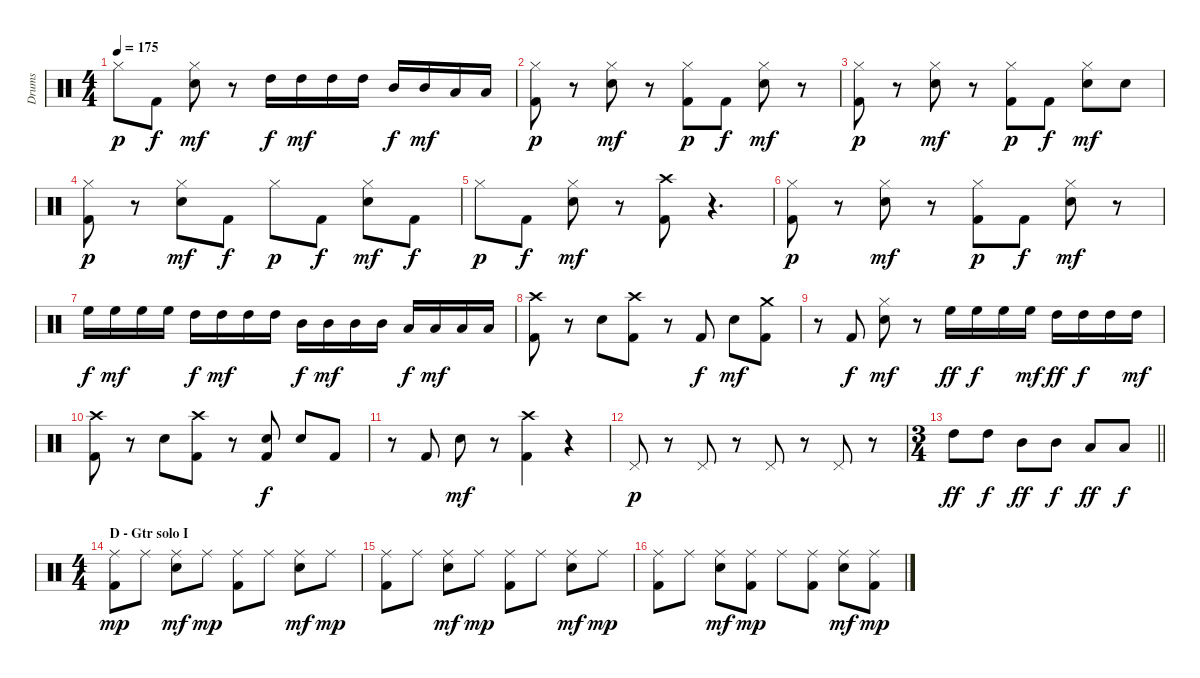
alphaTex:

\track ("Drums" "Drums") {instrument percussion}
\staff {score}
\articulation defaults
\ts (4 4)
\tempo 175
\clef neutral
\ks c "Hi-Hat (closed)".8{dy p} "Kick (hit) 2".8{dy f}
("Hi-Hat (closed)" "Electric Snare (hit)").8{dy mf} r.8 "High Tom (hit)".16{dy f} "High Tom (hit)".16{dy mf} "High Tom (hit)".16 "High Tom (hit)".16 "Mid Tom (hit)".16{dy f} "Mid Tom (hit)".16{dy mf} "Low Tom (hit)".16 "Low Tom (hit)".16 |
("Hi-Hat (closed)" "Kick (hit) 2").8{dy p} r.8 ("Hi-Hat (closed)" "Electric Snare (hit)").8{dy mf} r.8 ("Hi-Hat (closed)" "Kick (hit) 2").8{dy p} "Kick (hit) 2".8{dy f} ("Hi-Hat (closed)" "Electric Snare (hit)").8{dy mf} r.8 |
("Hi-Hat (closed)" "Kick (hit) 2").8{dy p} r.8 ("Hi-Hat (closed)" "Electric Snare (hit)").8{dy mf} r.8 ("Hi-Hat (closed)" "Kick (hit) 2").8{dy p} "Kick (hit) 2".8{dy f} ("Hi-Hat (closed)" "Electric Snare (hit)").8{dy mf} "Electric Snare (hit)".8 |
("Hi-Hat (closed)" "Kick (hit) 2").8{dy p} r.8 ("Hi-Hat (closed)" "Electric Snare (hit)").8{dy mf} "Kick (hit) 2".8{dy f} "Hi-Hat (closed)".8{dy p} "Kick (hit) 2".8{dy f} ("Hi-Hat (closed)" "Electric Snare (hit)").8{dy mf} "Kick (hit) 2".8{dy f} |
"Hi-Hat (closed)".8{dy p} "Kick (hit) 2".8{dy f} ("Hi-Hat (closed)" "Electric Snare (hit)").8{dy mf} r.8 ("Crash high (hit)" "Kick (hit) 2").8 r.4{d} |
("Hi-Hat (closed)" "Kick (hit) 2").8{dy p} r.8 ("Hi-Hat (closed)" "Electric Snare (hit)").8{dy mf} r.8 ("Hi-Hat (closed)" "Kick (hit) 2").8{dy p} "Kick (hit) 2".8{dy f} ("Hi-Hat (closed)" "Electric Snare (hit)").8{dy mf} r.8 |
"High Floor Tom (hit)".16{dy f} "High Floor Tom (hit)".16{dy mf} "High Floor Tom (hit)".16 "High Floor Tom (hit)".16 "High Tom (hit)".16{dy f} "High Tom (hit)".16{dy mf} "High Tom (hit)".16 "High Tom (hit)".16 "Mid Tom (hit)".16{dy f} "Mid Tom (hit)".16{dy mf} "Mid Tom (hit)".16 "Mid Tom (hit)".16 "Low Tom (hit)".16{dy f} "Low Tom (hit)".16{dy mf} "Low Tom (hit)".16 "Low Tom (hit)".16 |
("Crash high (hit)" "Kick (hit) 2").8 r.8 "Electric Snare (hit)".8 ("Crash high (hit)" "Kick (hit) 2").8 r.8 "Kick (hit) 2".8{dy f} "Electric Snare (hit)".8{dy mf} ("Crash medium (hit)" "Kick (hit) 2").8 |
r.8 "Kick (hit) 2".8{dy f} ("Hi-Hat (closed)" "Electric Snare (hit)").8{dy mf} r.8 "High Floor Tom (hit)".16{dy ff} "High Floor Tom (hit)".16{dy f} "High Floor Tom (hit)".16 "High Floor Tom (hit)".16{dy mf} "High Tom (hit)".16{dy ff} "High Tom (hit)".16{dy f} "High Tom (hit)".16 "High Tom (hit)".16{dy mf} |
("Crash high (hit)" "Kick (hit) 2").8 r.8 "Electric Snare (hit)".8 ("Crash high (hit)" "Kick (hit) 2").8 r.8 ("Electric Snare (hit)" "Kick (hit) 2").8{dy f} "Electric Snare (hit)".8 "Kick (hit) 2".8 |
r.8 "Kick (hit) 2".8 "Electric Snare (hit)".8{dy mf} r.8 ("Crash high (hit)" "Kick (hit) 2").4 r.4 |
"Pedal Hi-Hat (hit)".8{dy p} r.8 "Pedal Hi-Hat (hit)".8 r.8 "Pedal Hi-Hat (hit)".8 r.8 "Pedal Hi-Hat (hit)".8 r.8 |
\ts (3 4)
\barLineRight lightlight "High Tom (hit)".8{dy ff} "High Tom (hit)".8{dy f} "Mid Tom (hit)".8{dy ff} "Mid Tom (hit)".8{dy f} "Low Tom (hit)".8{dy ff} "Low Tom (hit)".8{dy f}
|
\ts (4 4)
\section ("" "D - Gtr solo I")
("Ride (middle)" "Kick (hit) 2").8{dy mp} "Ride (middle)".8 ("Ride (middle)" "Electric Snare (hit)").8{dy mf} "Ride (middle)".8{dy mp} ("Ride (middle)" "Kick (hit) 2").8 "Ride (middle)".8 ("Ride (middle)" "Electric Snare (hit)").8{dy mf} "Ride (middle)".8{dy mp} |
("Ride (middle)" "Kick (hit) 2").8 "Ride (middle)".8 ("Ride (middle)" "Electric Snare (hit)").8{dy mf} "Ride (middle)".8{dy mp} ("Ride (middle)" "Kick (hit) 2").8 "Ride (middle)".8 ("Ride (middle)" "Electric Snare (hit)").8{dy mf} "Ride (middle)".8{dy mp} |
("Ride (middle)" "Kick (hit) 2").8 "Ride (middle)".8 ("Ride (middle)" "Electric Snare (hit)").8{dy mf} ("Ride (middle)" "Kick (hit) 2").8{dy mp} "Ride (middle)".8 ("Ride (middle)" "Kick (hit) 2").8 ("Ride (middle)" "Electric Snare (hit)").8{dy mf} ("Ride (middle)" "Kick (hit) 2").8{dy mp}
